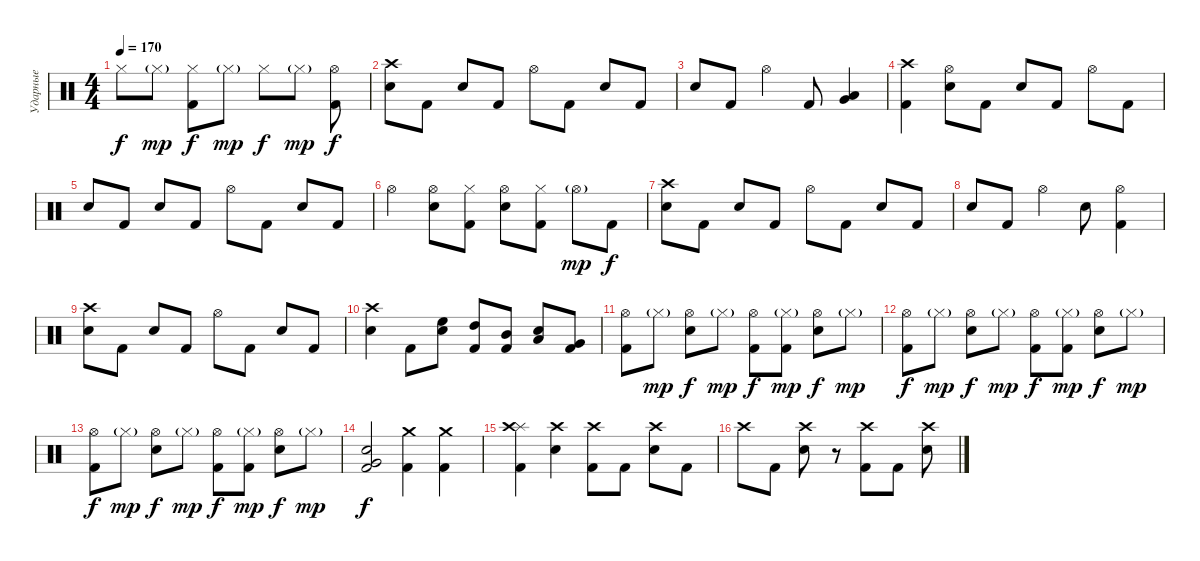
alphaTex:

\track ("Ударные" "Ударные") {instrument percussion}
\staff {score}
\articulation defaults
\ts (4 4)
\tempo 170
\clef neutral
\ks c "Hi-Hat (closed)".8{dy f} "Hi-Hat (closed)"{g}.8{dy mp}
("Hi-Hat (closed)" "Kick (hit) 2").8{dy f} "Hi-Hat (closed)"{g}.8{dy mp} "Hi-Hat (closed)".8{dy f} "Hi-Hat (closed)"{g}.8{dy mp} ("Hi-Hat (open)" "Kick (hit) 2").8{dy f} |
("Crash high (hit)" "Snare (hit) 2").8 "Kick (hit) 2".8 "Snare (hit) 2".8 "Kick (hit) 2".8 "Hi-Hat (open)".8 "Kick (hit) 2".8 "Snare (hit) 2".8 "Kick (hit) 2".8 |
"Snare (hit) 2".8 "Kick (hit) 2".8 "Hi-Hat (open)".4 "Kick (hit) 2".8 ("Low Floor Tom (hit)" "Very Low Tom (hit)").4 |
("Crash high (hit)" "Kick (hit) 2").4 ("Hi-Hat (open)" "Snare (hit) 2").8 "Kick (hit) 2".8 "Snare (hit) 2".8 "Kick (hit) 2".8 "Hi-Hat (open)".8 "Kick (hit) 2".8 |
"Snare (hit) 2".8 "Kick (hit) 2".8 "Snare (hit) 2".8 "Kick (hit) 2".8 "Hi-Hat (open)".8 "Kick (hit) 2".8 "Snare (hit) 2".8 "Kick (hit) 2".8 |
"Hi-Hat (open)".4 ("Hi-Hat (open)" "Snare (hit) 2").8 ("Hi-Hat (closed)" "Kick (hit) 2").8 ("Hi-Hat (open)" "Snare (hit) 2").8 ("Hi-Hat (closed)" "Kick (hit) 2").8 "Hi-Hat (open)"{g}.8{dy mp} "Kick (hit) 2".8{dy f} |
("Crash high (hit)" "Snare (hit) 2").8 "Kick (hit) 2".8 "Snare (hit) 2".8 "Kick (hit) 2".8 "Hi-Hat (open)".8 "Kick (hit) 2".8 "Snare (hit) 2".8 "Kick (hit) 2".8 |
"Snare (hit) 2".8 "Kick (hit) 2".8 "Hi-Hat (open)".4 "Snare (hit) 2".8 ("Hi-Hat (open)" "Kick (hit) 2").4 |
("Crash high (hit)" "Snare (hit) 2").8 "Kick (hit) 2".8 "Snare (hit) 2".8 "Kick (hit) 2".8 "Hi-Hat (open)".8 "Kick (hit) 2".8 "Snare (hit) 2".8 "Kick (hit) 2".8 |
("Crash high (hit)" "Snare (hit) 2").4 "Kick (hit) 2".8 ("High Floor Tom (hit)" "Snare (hit) 2").8 ("High Tom (hit)" "Kick (hit) 2").8 ("Mid Tom (hit)" "Kick (hit) 2").8 ("Low Tom (hit)" "Snare (hit) 2").8 ("Very Low Tom (hit)" "Kick (hit) 2").8 |
("Hi-Hat (open)" "Kick (hit) 2").8 "Hi-Hat (closed)"{g}.8{dy mp} ("Hi-Hat (open)" "Snare (hit) 2").8{dy f} "Hi-Hat (closed)"{g}.8{dy mp} ("Hi-Hat (open)" "Kick (hit) 2").8{dy f} ("Hi-Hat (closed)"{g} "Kick (hit) 2").8{dy mp} ("Hi-Hat (open)" "Snare (hit) 2").8{dy f} "Hi-Hat (closed)"{g}.8{dy mp} |
("Hi-Hat (open)" "Kick (hit) 2").8{dy f} "Hi-Hat (closed)"{g}.8{dy mp} ("Hi-Hat (open)" "Snare (hit) 2").8{dy f} "Hi-Hat (closed)"{g}.8{dy mp} ("Hi-Hat (open)" "Kick (hit) 2").8{dy f} ("Hi-Hat (closed)"{g} "Kick (hit) 2").8{dy mp} ("Hi-Hat (open)" "Snare (hit) 2").8{dy f} "Hi-Hat (closed)"{g}.8{dy mp} |
("Hi-Hat (open)" "Kick (hit) 2").8{dy f} "Hi-Hat (closed)"{g}.8{dy mp} ("Hi-Hat (open)" "Snare (hit) 2").8{dy f} "Hi-Hat (closed)"{g}.8{dy mp} ("Hi-Hat (open)" "Kick (hit) 2").8{dy f} ("Hi-Hat (closed)"{g} "Kick (hit) 2").8{dy mp} ("Hi-Hat (open)" "Snare (hit) 2").8{dy f} "Hi-Hat (closed)"{g}.8{dy mp} |
("Kick (hit) 2" "Very Low Tom (hit)" "Snare (hit) 2").2{dy f} ("Crash medium (hit)" "Kick (hit) 2").4 ("Crash medium (hit)" "Kick (hit) 2").4 |
("Splash (hit)" "Crash high (hit)" "Kick (hit) 2").4 ("Crash high (hit)" "Snare (hit) 2").4 ("Crash high (hit)" "Kick (hit) 2").8 "Kick (hit) 2".8 ("Crash high (hit)" "Snare (hit) 2").8 "Kick (hit) 2".8 |
"Crash high (hit)".8 "Kick (hit) 2".8 ("Crash high (hit)" "Snare (hit) 2").8 r.8 ("Crash high (hit)" "Kick (hit) 2").8 "Kick (hit) 2".8 ("Crash high (hit)" "Snare (hit) 2").8
